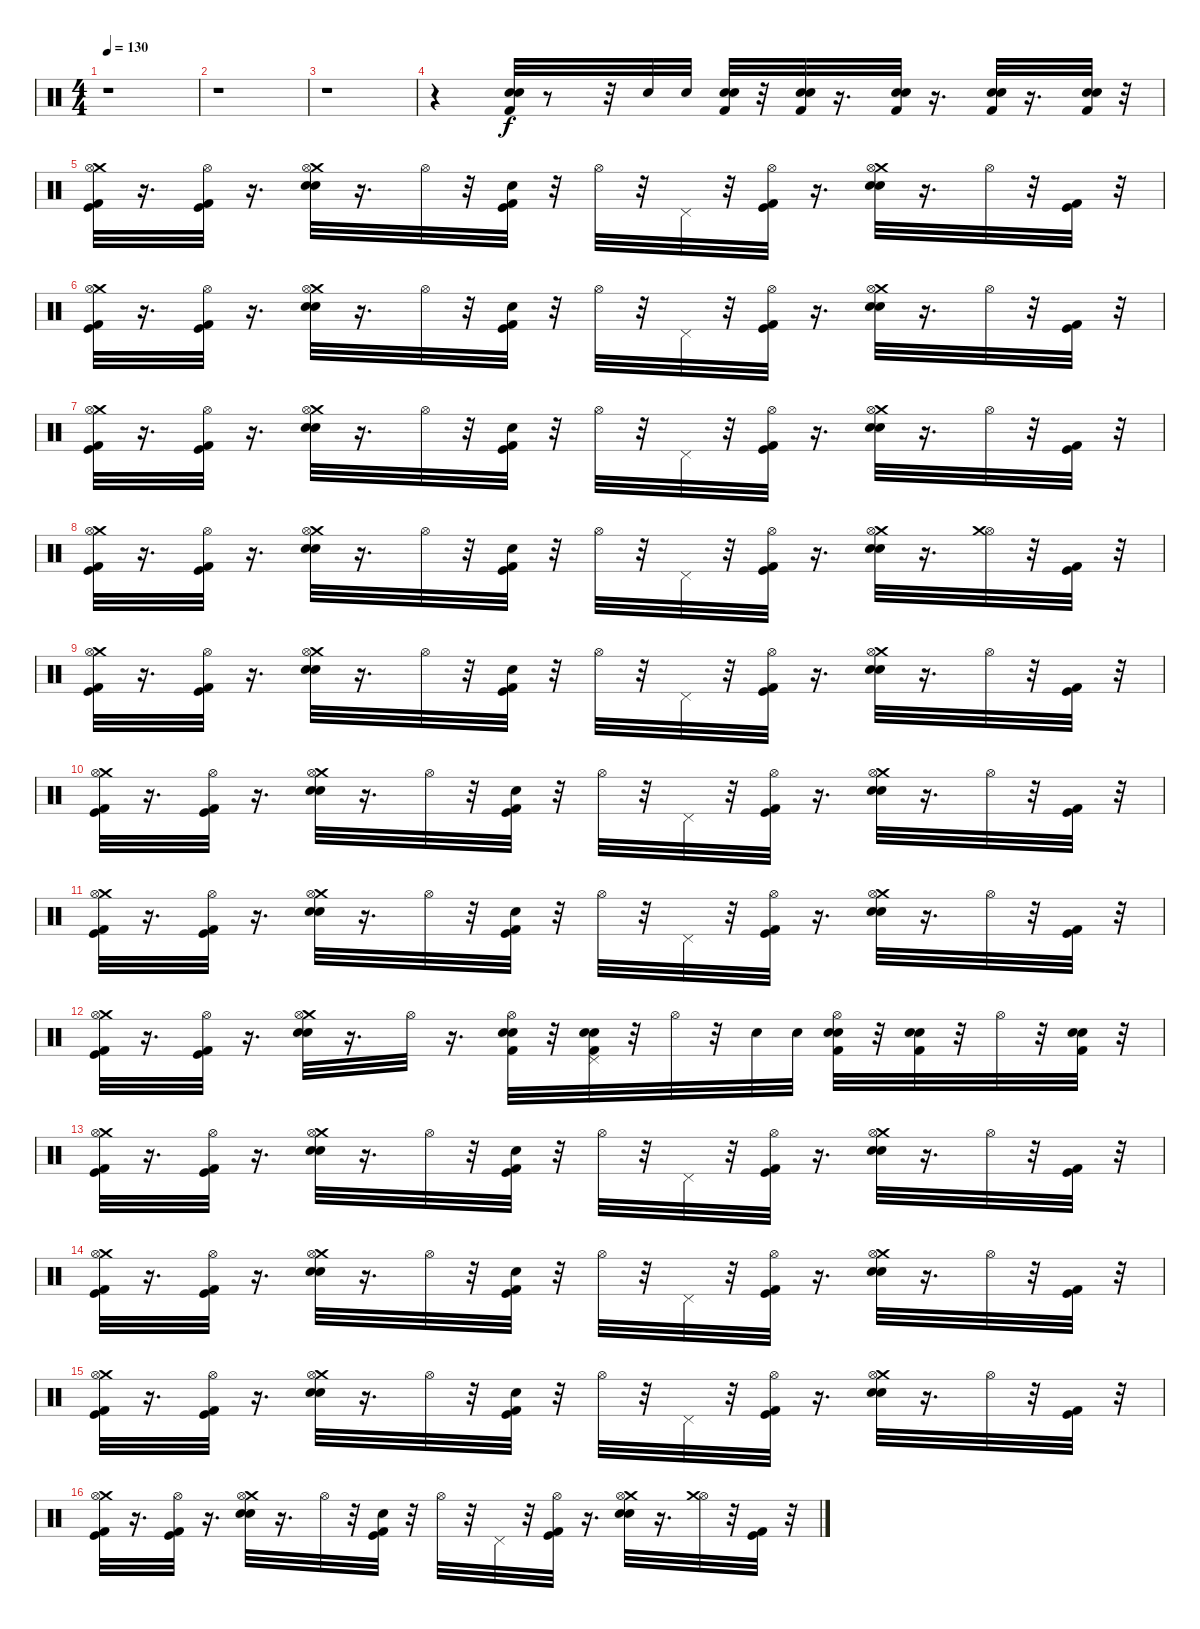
\track "" {instrument percussion}
\staff {score}
\articulation defaults
\ts (4 4)
\tempo 130
\clef neutral
\ks c
r.1{dy f} |
r.1 |
r.1 |
r.4 ("Electric Snare (hit)" "Snare (hit) 2" "Kick (hit) 2").32 r.8 r.32 "Electric Snare (hit)".32 "Electric Snare (hit)".32 ("Snare (hit) 2" "Electric Snare (hit)" "Kick (hit) 2").32 r.32 ("Electric Snare (hit)" "Snare (hit) 2" "Kick (hit) 2").32 r.16{d} ("Electric Snare (hit)" "Snare (hit) 2" "Kick (hit) 2").32 r.16{d} ("Electric Snare (hit)" "Snare (hit) 2" "Kick (hit) 2").32 r.16{d} ("Electric Snare (hit)" "Snare (hit) 2" "Kick (hit) 2").32 r.32 |
("Kick (hit) 2" "Kick (hit)" "Crash medium (hit)" "Hi-Hat (open)").32 r.16{d} ("Kick (hit) 2" "Kick (hit)" "Hi-Hat (open)").32 r.16{d} ("Snare (hit) 2" "Electric Snare (hit)" "Crash medium (hit)" "Hi-Hat (open)").32 r.16{d} "Hi-Hat (open)".32 r.32 ("Kick (hit) 2" "Kick (hit)" "Electric Snare (hit)").32 r.32 "Hi-Hat (open)".32 r.32 "Pedal Hi-Hat (hit)".32 r.32 ("Kick (hit) 2" "Kick (hit)" "Hi-Hat (open)").32 r.16{d} ("Snare (hit) 2" "Electric Snare (hit)" "Crash medium (hit)" "Hi-Hat (open)").32 r.16{d} "Hi-Hat (open)".32 r.32 ("Kick (hit) 2" "Kick (hit)").32 r.32 |
("Kick (hit) 2" "Kick (hit)" "Crash medium (hit)" "Hi-Hat (open)").32 r.16{d} ("Kick (hit) 2" "Kick (hit)" "Hi-Hat (open)").32 r.16{d} ("Snare (hit) 2" "Electric Snare (hit)" "Crash medium (hit)" "Hi-Hat (open)").32 r.16{d} "Hi-Hat (open)".32 r.32 ("Kick (hit) 2" "Kick (hit)" "Electric Snare (hit)").32 r.32 "Hi-Hat (open)".32 r.32 "Pedal Hi-Hat (hit)".32 r.32 ("Kick (hit) 2" "Kick (hit)" "Hi-Hat (open)").32 r.16{d} ("Snare (hit) 2" "Electric Snare (hit)" "Crash medium (hit)" "Hi-Hat (open)").32 r.16{d} "Hi-Hat (open)".32 r.32 ("Kick (hit) 2" "Kick (hit)").32 r.32 |
("Kick (hit) 2" "Kick (hit)" "Crash medium (hit)" "Hi-Hat (open)").32 r.16{d} ("Kick (hit) 2" "Kick (hit)" "Hi-Hat (open)").32 r.16{d} ("Snare (hit) 2" "Electric Snare (hit)" "Crash medium (hit)" "Hi-Hat (open)").32 r.16{d} "Hi-Hat (open)".32 r.32 ("Kick (hit) 2" "Kick (hit)" "Electric Snare (hit)").32 r.32 "Hi-Hat (open)".32 r.32 "Pedal Hi-Hat (hit)".32 r.32 ("Kick (hit) 2" "Kick (hit)" "Hi-Hat (open)").32 r.16{d} ("Snare (hit) 2" "Electric Snare (hit)" "Crash medium (hit)" "Hi-Hat (open)").32 r.16{d} "Hi-Hat (open)".32 r.32 ("Kick (hit) 2" "Kick (hit)").32 r.32 |
("Kick (hit) 2" "Kick (hit)" "Crash medium (hit)" "Hi-Hat (open)").32 r.16{d} ("Kick (hit) 2" "Kick (hit)" "Hi-Hat (open)").32 r.16{d} ("Snare (hit) 2" "Electric Snare (hit)" "Crash medium (hit)" "Hi-Hat (open)").32 r.16{d} "Hi-Hat (open)".32 r.32 ("Kick (hit) 2" "Kick (hit)" "Electric Snare (hit)").32 r.32 "Hi-Hat (open)".32 r.32 "Pedal Hi-Hat (hit)".32 r.32 ("Kick (hit) 2" "Kick (hit)" "Hi-Hat (open)").32 r.16{d} ("Snare (hit) 2" "Electric Snare (hit)" "Crash medium (hit)" "Hi-Hat (open)").32 r.16{d} ("Hi-Hat (open)" "Crash medium (hit)").32 r.32 ("Kick (hit) 2" "Kick (hit)").32 r.32 |
("Kick (hit) 2" "Kick (hit)" "Crash medium (hit)" "Hi-Hat (open)").32 r.16{d} ("Kick (hit) 2" "Kick (hit)" "Hi-Hat (open)").32 r.16{d} ("Snare (hit) 2" "Electric Snare (hit)" "Crash medium (hit)" "Hi-Hat (open)").32 r.16{d} "Hi-Hat (open)".32 r.32 ("Kick (hit) 2" "Kick (hit)" "Electric Snare (hit)").32 r.32 "Hi-Hat (open)".32 r.32 "Pedal Hi-Hat (hit)".32 r.32 ("Kick (hit) 2" "Kick (hit)" "Hi-Hat (open)").32 r.16{d} ("Snare (hit) 2" "Electric Snare (hit)" "Crash medium (hit)" "Hi-Hat (open)").32 r.16{d} "Hi-Hat (open)".32 r.32 ("Kick (hit) 2" "Kick (hit)").32 r.32 |
("Kick (hit) 2" "Kick (hit)" "Crash medium (hit)" "Hi-Hat (open)").32 r.16{d} ("Kick (hit) 2" "Kick (hit)" "Hi-Hat (open)").32 r.16{d} ("Snare (hit) 2" "Electric Snare (hit)" "Crash medium (hit)" "Hi-Hat (open)").32 r.16{d} "Hi-Hat (open)".32 r.32 ("Kick (hit) 2" "Kick (hit)" "Electric Snare (hit)").32 r.32 "Hi-Hat (open)".32 r.32 "Pedal Hi-Hat (hit)".32 r.32 ("Kick (hit) 2" "Kick (hit)" "Hi-Hat (open)").32 r.16{d} ("Snare (hit) 2" "Electric Snare (hit)" "Crash medium (hit)" "Hi-Hat (open)").32 r.16{d} "Hi-Hat (open)".32 r.32 ("Kick (hit) 2" "Kick (hit)").32 r.32 |
("Kick (hit) 2" "Kick (hit)" "Crash medium (hit)" "Hi-Hat (open)").32 r.16{d} ("Kick (hit) 2" "Kick (hit)" "Hi-Hat (open)").32 r.16{d} ("Snare (hit) 2" "Electric Snare (hit)" "Crash medium (hit)" "Hi-Hat (open)").32 r.16{d} "Hi-Hat (open)".32 r.32 ("Kick (hit) 2" "Kick (hit)" "Electric Snare (hit)").32 r.32 "Hi-Hat (open)".32 r.32 "Pedal Hi-Hat (hit)".32 r.32 ("Kick (hit) 2" "Kick (hit)" "Hi-Hat (open)").32 r.16{d} ("Snare (hit) 2" "Electric Snare (hit)" "Crash medium (hit)" "Hi-Hat (open)").32 r.16{d} "Hi-Hat (open)".32 r.32 ("Kick (hit) 2" "Kick (hit)").32 r.32 |
("Kick (hit) 2" "Kick (hit)" "Crash medium (hit)" "Hi-Hat (open)").32 r.16{d} ("Kick (hit) 2" "Kick (hit)" "Hi-Hat (open)").32 r.16{d} ("Snare (hit) 2" "Electric Snare (hit)" "Crash medium (hit)" "Hi-Hat (open)").32 r.16{d} "Hi-Hat (open)".32 r.16{d} ("Hi-Hat (open)" "Electric Snare (hit)" "Snare (hit) 2" "Kick (hit) 2").32 r.32 ("Electric Snare (hit)" "Snare (hit) 2" "Kick (hit) 2" "Pedal Hi-Hat (hit)").32 r.32 "Hi-Hat (open)".32 r.32 "Electric Snare (hit)".32 "Electric Snare (hit)".32 ("Hi-Hat (open)" "Snare (hit) 2" "Electric Snare (hit)" "Kick (hit) 2").32 r.32 ("Electric Snare (hit)" "Snare (hit) 2" "Kick (hit) 2").32 r.32 "Hi-Hat (open)".32 r.32 ("Electric Snare (hit)" "Snare (hit) 2" "Kick (hit) 2").32 r.32 |
("Kick (hit) 2" "Kick (hit)" "Crash medium (hit)" "Hi-Hat (open)").32 r.16{d} ("Kick (hit) 2" "Kick (hit)" "Hi-Hat (open)").32 r.16{d} ("Snare (hit) 2" "Electric Snare (hit)" "Crash medium (hit)" "Hi-Hat (open)").32 r.16{d} "Hi-Hat (open)".32 r.32 ("Kick (hit) 2" "Kick (hit)" "Electric Snare (hit)").32 r.32 "Hi-Hat (open)".32 r.32 "Pedal Hi-Hat (hit)".32 r.32 ("Kick (hit) 2" "Kick (hit)" "Hi-Hat (open)").32 r.16{d} ("Snare (hit) 2" "Electric Snare (hit)" "Crash medium (hit)" "Hi-Hat (open)").32 r.16{d} "Hi-Hat (open)".32 r.32 ("Kick (hit) 2" "Kick (hit)").32 r.32 |
("Kick (hit) 2" "Kick (hit)" "Crash medium (hit)" "Hi-Hat (open)").32 r.16{d} ("Kick (hit) 2" "Kick (hit)" "Hi-Hat (open)").32 r.16{d} ("Snare (hit) 2" "Electric Snare (hit)" "Crash medium (hit)" "Hi-Hat (open)").32 r.16{d} "Hi-Hat (open)".32 r.32 ("Kick (hit) 2" "Kick (hit)" "Electric Snare (hit)").32 r.32 "Hi-Hat (open)".32 r.32 "Pedal Hi-Hat (hit)".32 r.32 ("Kick (hit) 2" "Kick (hit)" "Hi-Hat (open)").32 r.16{d} ("Snare (hit) 2" "Electric Snare (hit)" "Crash medium (hit)" "Hi-Hat (open)").32 r.16{d} "Hi-Hat (open)".32 r.32 ("Kick (hit) 2" "Kick (hit)").32 r.32 |
("Kick (hit) 2" "Kick (hit)" "Crash medium (hit)" "Hi-Hat (open)").32 r.16{d} ("Kick (hit) 2" "Kick (hit)" "Hi-Hat (open)").32 r.16{d} ("Snare (hit) 2" "Electric Snare (hit)" "Crash medium (hit)" "Hi-Hat (open)").32 r.16{d} "Hi-Hat (open)".32 r.32 ("Kick (hit) 2" "Kick (hit)" "Electric Snare (hit)").32 r.32 "Hi-Hat (open)".32 r.32 "Pedal Hi-Hat (hit)".32 r.32 ("Kick (hit) 2" "Kick (hit)" "Hi-Hat (open)").32 r.16{d} ("Snare (hit) 2" "Electric Snare (hit)" "Crash medium (hit)" "Hi-Hat (open)").32 r.16{d} "Hi-Hat (open)".32 r.32 ("Kick (hit) 2" "Kick (hit)").32 r.32 |
("Kick (hit) 2" "Kick (hit)" "Crash medium (hit)" "Hi-Hat (open)").32 r.16{d} ("Kick (hit) 2" "Kick (hit)" "Hi-Hat (open)").32 r.16{d} ("Snare (hit) 2" "Electric Snare (hit)" "Crash medium (hit)" "Hi-Hat (open)").32 r.16{d} "Hi-Hat (open)".32 r.32 ("Kick (hit) 2" "Kick (hit)" "Electric Snare (hit)").32 r.32 "Hi-Hat (open)".32 r.32 "Pedal Hi-Hat (hit)".32 r.32 ("Kick (hit) 2" "Kick (hit)" "Hi-Hat (open)").32 r.16{d} ("Snare (hit) 2" "Electric Snare (hit)" "Crash medium (hit)" "Hi-Hat (open)").32 r.16{d} ("Hi-Hat (open)" "Crash medium (hit)").32 r.32 ("Kick (hit) 2" "Kick (hit)").32 r.32
